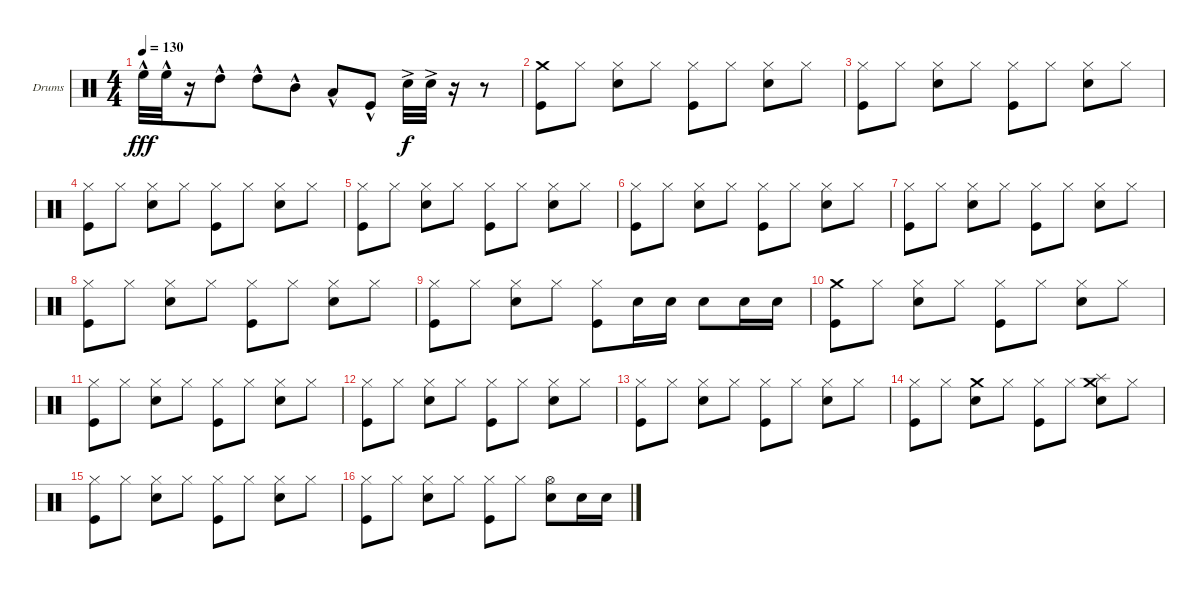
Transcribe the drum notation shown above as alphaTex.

\defaultSystemsLayout 4
\bracketExtendMode groupsimilarinstruments
\firstSystemTrackNameOrientation horizontal
\otherSystemsTrackNameOrientation horizontal
\track ("Stefan Kaufmann" "Drums") {instrument percussion}
\staff {score}
\articulation defaults
\ts (4 4)
\tempo 130
\clef neutral
\ks c "High Floor Tom (hit)"{hac}.32{dy fff} "High Floor Tom (hit)"{hac}.32
r.16 "High Tom (hit)"{hac}.8 "High Tom (hit)"{hac}.8 "Mid Tom (hit)"{hac}.8 "Low Tom (hit)"{hac}.8 "Kick (hit)"{hac}.8 "Snare (hit) 2"{ac}.32{dy f} "Snare (hit) 2"{ac}.32 r.16 r.8 |
("Crash medium (hit)" "Kick (hit)").8 "Hi-Hat (closed)".8 ("Hi-Hat (closed)" "Snare (hit) 2").8 "Hi-Hat (closed)".8 ("Hi-Hat (closed)" "Kick (hit)").8 "Hi-Hat (closed)".8 ("Hi-Hat (closed)" "Snare (hit) 2").8 "Hi-Hat (closed)".8 |
("Hi-Hat (closed)" "Kick (hit)").8 "Hi-Hat (closed)".8 ("Hi-Hat (closed)" "Snare (hit) 2").8 "Hi-Hat (closed)".8 ("Hi-Hat (closed)" "Kick (hit)").8 "Hi-Hat (closed)".8 ("Hi-Hat (closed)" "Snare (hit) 2").8 "Hi-Hat (closed)".8 |
("Hi-Hat (closed)" "Kick (hit)").8 "Hi-Hat (closed)".8 ("Hi-Hat (closed)" "Snare (hit) 2").8 "Hi-Hat (closed)".8 ("Hi-Hat (closed)" "Kick (hit)").8 "Hi-Hat (closed)".8 ("Hi-Hat (closed)" "Snare (hit) 2").8 "Hi-Hat (closed)".8 |
("Hi-Hat (closed)" "Kick (hit)").8 "Hi-Hat (closed)".8 ("Hi-Hat (closed)" "Snare (hit) 2").8 "Hi-Hat (closed)".8 ("Hi-Hat (closed)" "Kick (hit)").8 "Hi-Hat (closed)".8 ("Hi-Hat (closed)" "Snare (hit) 2").8 "Hi-Hat (closed)".8 |
("Hi-Hat (closed)" "Kick (hit)").8 "Hi-Hat (closed)".8 ("Hi-Hat (closed)" "Snare (hit) 2").8 "Hi-Hat (closed)".8 ("Hi-Hat (closed)" "Kick (hit)").8 "Hi-Hat (closed)".8 ("Hi-Hat (closed)" "Snare (hit) 2").8 "Hi-Hat (closed)".8 |
("Hi-Hat (closed)" "Kick (hit)").8 "Hi-Hat (closed)".8 ("Hi-Hat (closed)" "Snare (hit) 2").8 "Hi-Hat (closed)".8 ("Hi-Hat (closed)" "Kick (hit)").8 "Hi-Hat (closed)".8 ("Hi-Hat (closed)" "Snare (hit) 2").8 "Hi-Hat (closed)".8 |
("Hi-Hat (closed)" "Kick (hit)").8 "Hi-Hat (closed)".8 ("Hi-Hat (closed)" "Snare (hit) 2").8 "Hi-Hat (closed)".8 ("Hi-Hat (closed)" "Kick (hit)").8 "Hi-Hat (closed)".8 ("Hi-Hat (closed)" "Snare (hit) 2").8 "Hi-Hat (closed)".8 |
("Hi-Hat (closed)" "Kick (hit)").8 "Hi-Hat (closed)".8 ("Hi-Hat (closed)" "Snare (hit) 2").8 "Hi-Hat (closed)".8 ("Hi-Hat (closed)" "Kick (hit)").8 "Snare (hit) 2".16 "Snare (hit) 2".16 "Snare (hit) 2".8 "Snare (hit) 2".16 "Snare (hit) 2".16 |
("Crash medium (hit)" "Kick (hit)").8 "Hi-Hat (closed)".8 ("Hi-Hat (closed)" "Snare (hit) 2").8 "Hi-Hat (closed)".8 ("Hi-Hat (closed)" "Kick (hit)").8 "Hi-Hat (closed)".8 ("Hi-Hat (closed)" "Snare (hit) 2").8 "Hi-Hat (closed)".8 |
("Hi-Hat (closed)" "Kick (hit)").8 "Hi-Hat (closed)".8 ("Hi-Hat (closed)" "Snare (hit) 2").8 "Hi-Hat (closed)".8 ("Hi-Hat (closed)" "Kick (hit)").8 "Hi-Hat (closed)".8 ("Hi-Hat (closed)" "Snare (hit) 2").8 "Hi-Hat (closed)".8 |
("Hi-Hat (closed)" "Kick (hit)").8 "Hi-Hat (closed)".8 ("Hi-Hat (closed)" "Snare (hit) 2").8 "Hi-Hat (closed)".8 ("Hi-Hat (closed)" "Kick (hit)").8 "Hi-Hat (closed)".8 ("Hi-Hat (closed)" "Snare (hit) 2").8 "Hi-Hat (closed)".8 |
("Hi-Hat (closed)" "Kick (hit)").8 "Hi-Hat (closed)".8 ("Hi-Hat (closed)" "Snare (hit) 2").8 "Hi-Hat (closed)".8 ("Hi-Hat (closed)" "Kick (hit)").8 "Hi-Hat (closed)".8 ("Hi-Hat (closed)" "Snare (hit) 2").8 "Hi-Hat (closed)".8 |
("Hi-Hat (closed)" "Kick (hit)").8 "Hi-Hat (closed)".8 ("Crash medium (hit)" "Snare (hit) 2").8 "Hi-Hat (closed)".8 ("Hi-Hat (closed)" "Kick (hit)").8 "Hi-Hat (closed)".8 ("Crash medium (hit)" "Splash (hit)" "Snare (hit) 2").8 "Hi-Hat (closed)".8 |
("Hi-Hat (closed)" "Kick (hit)").8 "Hi-Hat (closed)".8 ("Hi-Hat (closed)" "Snare (hit) 2").8 "Hi-Hat (closed)".8 ("Hi-Hat (closed)" "Kick (hit)").8 "Hi-Hat (closed)".8 ("Hi-Hat (closed)" "Snare (hit) 2").8 "Hi-Hat (closed)".8 |
("Hi-Hat (closed)" "Kick (hit)").8 "Hi-Hat (closed)".8 ("Hi-Hat (closed)" "Snare (hit) 2").8 "Hi-Hat (closed)".8 ("Hi-Hat (closed)" "Kick (hit)").8 "Hi-Hat (closed)".8 ("Hi-Hat (open)" "Snare (hit) 2").8 "Snare (hit) 2".16 "Snare (hit) 2".16
